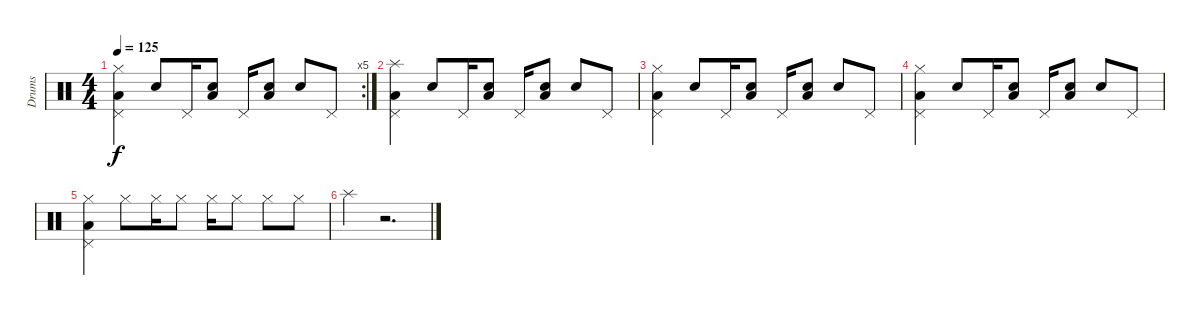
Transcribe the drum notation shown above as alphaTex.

\track ("Drums" "Drums") {instrument percussion}
\staff {score}
\articulation defaults
\rc 5
\ts (4 4)
\tempo 125
\clef neutral
\ks c
("Pedal Hi-Hat (hit)" "Low Floor Tom (hit)" "Hi-Hat (closed)").4{dy f} "Snare (hit) 2".8 "Pedal Hi-Hat (hit)".16 ("Snare (hit) 2" "Low Floor Tom (hit)").8 "Pedal Hi-Hat (hit)".16 ("Snare (hit) 2" "Low Floor Tom (hit)").8 "Snare (hit) 2".8 "Pedal Hi-Hat (hit)".8 |
("Pedal Hi-Hat (hit)" "Low Floor Tom (hit)" "Splash (hit)").4 "Snare (hit) 2".8 "Pedal Hi-Hat (hit)".16 ("Snare (hit) 2" "Low Floor Tom (hit)").8 "Pedal Hi-Hat (hit)".16 ("Snare (hit) 2" "Low Floor Tom (hit)").8 "Snare (hit) 2".8 "Pedal Hi-Hat (hit)".8 |
("Pedal Hi-Hat (hit)" "Low Floor Tom (hit)" "Hi-Hat (closed)").4 "Snare (hit) 2".8 "Pedal Hi-Hat (hit)".16 ("Snare (hit) 2" "Low Floor Tom (hit)").8 "Pedal Hi-Hat (hit)".16 ("Snare (hit) 2" "Low Floor Tom (hit)").8 "Snare (hit) 2".8 "Pedal Hi-Hat (hit)".8 |
("Pedal Hi-Hat (hit)" "Low Floor Tom (hit)" "Hi-Hat (closed)").4 "Snare (hit) 2".8 "Pedal Hi-Hat (hit)".16 ("Snare (hit) 2" "Low Floor Tom (hit)").8 "Pedal Hi-Hat (hit)".16 ("Snare (hit) 2" "Low Floor Tom (hit)").8 "Snare (hit) 2".8 "Pedal Hi-Hat (hit)".8 |
("Pedal Hi-Hat (hit)" "Low Floor Tom (hit)" "Hi-Hat (closed)").4 "Hi-Hat (closed)".8 "Hi-Hat (closed)".16 "Hi-Hat (closed)".8 "Hi-Hat (closed)".16 "Hi-Hat (closed)".8 "Hi-Hat (closed)".8 "Hi-Hat (closed)".8 |
"Splash (hit)".4 r.2{d}
